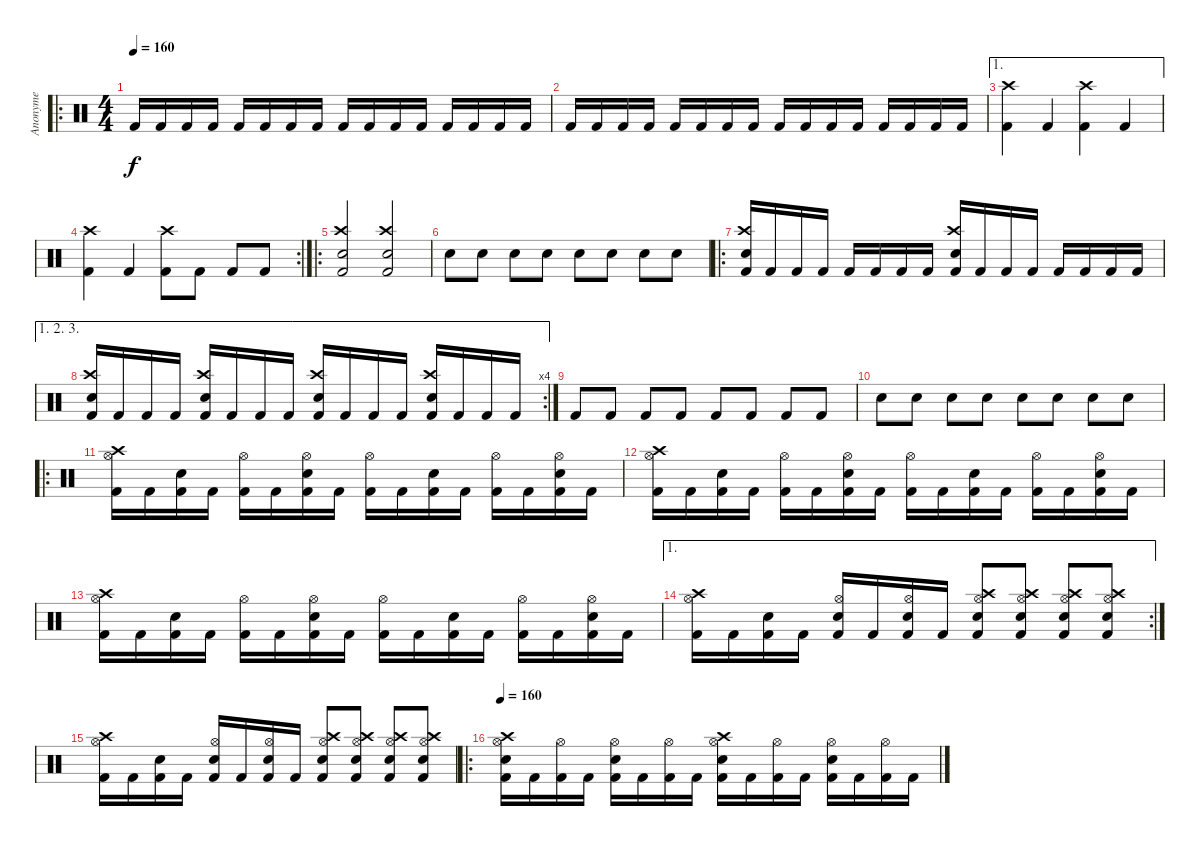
\track ("Anonyme" "Anonyme") {instrument percussion}
\staff {score}
\articulation defaults
\ro
\ts (4 4)
\tempo 160
\clef neutral
\ks c "Kick (hit) 2".16{dy f} "Kick (hit) 2".16 "Kick (hit) 2".16 "Kick (hit) 2".16 "Kick (hit) 2".16 "Kick (hit) 2".16 "Kick (hit) 2".16 "Kick (hit) 2".16 "Kick (hit) 2".16 "Kick (hit) 2".16 "Kick (hit) 2".16 "Kick (hit) 2".16 "Kick (hit) 2".16 "Kick (hit) 2".16 "Kick (hit) 2".16 "Kick (hit) 2".16
|
"Kick (hit) 2".16 "Kick (hit) 2".16 "Kick (hit) 2".16 "Kick (hit) 2".16 "Kick (hit) 2".16 "Kick (hit) 2".16 "Kick (hit) 2".16 "Kick (hit) 2".16 "Kick (hit) 2".16 "Kick (hit) 2".16 "Kick (hit) 2".16 "Kick (hit) 2".16 "Kick (hit) 2".16 "Kick (hit) 2".16 "Kick (hit) 2".16 "Kick (hit) 2".16 |
\ae 1
("Crash high (hit)" "Kick (hit) 2").4 "Kick (hit) 2".4 ("Crash high (hit)" "Kick (hit) 2").4 "Kick (hit) 2".4 |
\rc 2
("Crash high (hit)" "Kick (hit) 2").4 "Kick (hit) 2".4 ("Crash high (hit)" "Kick (hit) 2").8 "Kick (hit) 2".8 "Kick (hit) 2".8 "Kick (hit) 2".8 |
\ro
("Crash high (hit)" "Snare (hit) 2" "Kick (hit) 2").2 ("Crash high (hit)" "Snare (hit) 2" "Kick (hit) 2").2 |
"Snare (hit) 2".8 "Snare (hit) 2".8 "Snare (hit) 2".8 "Snare (hit) 2".8 "Snare (hit) 2".8 "Snare (hit) 2".8 "Snare (hit) 2".8 "Snare (hit) 2".8 |
\ro
("Crash high (hit)" "Snare (hit) 2" "Kick (hit) 2").16 "Kick (hit) 2".16 "Kick (hit) 2".16 "Kick (hit) 2".16 "Kick (hit) 2".16 "Kick (hit) 2".16 "Kick (hit) 2".16 "Kick (hit) 2".16 ("Crash high (hit)" "Snare (hit) 2" "Kick (hit) 2").16 "Kick (hit) 2".16 "Kick (hit) 2".16 "Kick (hit) 2".16 "Kick (hit) 2".16 "Kick (hit) 2".16 "Kick (hit) 2".16 "Kick (hit) 2".16 |
\ae (1 2 3)
\rc 4
("Crash high (hit)" "Snare (hit) 2" "Kick (hit) 2").16 "Kick (hit) 2".16 "Kick (hit) 2".16 "Kick (hit) 2".16 ("Crash high (hit)" "Snare (hit) 2" "Kick (hit) 2").16 "Kick (hit) 2".16 "Kick (hit) 2".16 "Kick (hit) 2".16 ("Crash high (hit)" "Snare (hit) 2" "Kick (hit) 2").16 "Kick (hit) 2".16 "Kick (hit) 2".16 "Kick (hit) 2".16 ("Crash high (hit)" "Snare (hit) 2" "Kick (hit) 2").16 "Kick (hit) 2".16 "Kick (hit) 2".16 "Kick (hit) 2".16 |
"Kick (hit) 2".8 "Kick (hit) 2".8 "Kick (hit) 2".8 "Kick (hit) 2".8 "Kick (hit) 2".8 "Kick (hit) 2".8 "Kick (hit) 2".8 "Kick (hit) 2".8 |
"Snare (hit) 2".8 "Snare (hit) 2".8 "Snare (hit) 2".8 "Snare (hit) 2".8 "Snare (hit) 2".8 "Snare (hit) 2".8 "Snare (hit) 2".8 "Snare (hit) 2".8 |
\ro
("Crash high (hit)" "Kick (hit) 2" "Hi-Hat (open)").16 "Kick (hit) 2".16 ("Electric Snare (hit)" "Kick (hit) 2").16 "Kick (hit) 2".16 ("Kick (hit) 2" "Hi-Hat (open)").16 "Kick (hit) 2".16 ("Electric Snare (hit)" "Kick (hit) 2" "Hi-Hat (open)").16 "Kick (hit) 2".16 ("Kick (hit) 2" "Hi-Hat (open)").16 "Kick (hit) 2".16 ("Electric Snare (hit)" "Kick (hit) 2").16 "Kick (hit) 2".16 ("Kick (hit) 2" "Hi-Hat (open)").16 "Kick (hit) 2".16 ("Electric Snare (hit)" "Kick (hit) 2" "Hi-Hat (open)").16 "Kick (hit) 2".16 |
("Crash high (hit)" "Kick (hit) 2" "Hi-Hat (open)").16 "Kick (hit) 2".16 ("Electric Snare (hit)" "Kick (hit) 2").16 "Kick (hit) 2".16 ("Kick (hit) 2" "Hi-Hat (open)").16 "Kick (hit) 2".16 ("Electric Snare (hit)" "Kick (hit) 2" "Hi-Hat (open)").16 "Kick (hit) 2".16 ("Kick (hit) 2" "Hi-Hat (open)").16 "Kick (hit) 2".16 ("Electric Snare (hit)" "Kick (hit) 2").16 "Kick (hit) 2".16 ("Kick (hit) 2" "Hi-Hat (open)").16 "Kick (hit) 2".16 ("Electric Snare (hit)" "Kick (hit) 2" "Hi-Hat (open)").16 "Kick (hit) 2".16 |
("Crash high (hit)" "Kick (hit) 2" "Hi-Hat (open)").16 "Kick (hit) 2".16 ("Electric Snare (hit)" "Kick (hit) 2").16 "Kick (hit) 2".16 ("Kick (hit) 2" "Hi-Hat (open)").16 "Kick (hit) 2".16 ("Electric Snare (hit)" "Kick (hit) 2" "Hi-Hat (open)").16 "Kick (hit) 2".16 ("Kick (hit) 2" "Hi-Hat (open)").16 "Kick (hit) 2".16 ("Electric Snare (hit)" "Kick (hit) 2").16 "Kick (hit) 2".16 ("Kick (hit) 2" "Hi-Hat (open)").16 "Kick (hit) 2".16 ("Electric Snare (hit)" "Kick (hit) 2" "Hi-Hat (open)").16 "Kick (hit) 2".16 |
\ae 1
\rc 2
("Crash high (hit)" "Kick (hit) 2" "Hi-Hat (open)").16 "Kick (hit) 2".16 ("Electric Snare (hit)" "Kick (hit) 2").16 "Kick (hit) 2".16 ("Electric Snare (hit)" "Kick (hit) 2" "Hi-Hat (open)").16 "Kick (hit) 2".16 ("Electric Snare (hit)" "Kick (hit) 2" "Hi-Hat (open)").16 "Kick (hit) 2".16 ("Crash high (hit)" "Electric Snare (hit)" "Kick (hit) 2" "Hi-Hat (open)").8 ("Crash high (hit)" "Electric Snare (hit)" "Kick (hit) 2" "Hi-Hat (open)").8 ("Crash high (hit)" "Electric Snare (hit)" "Kick (hit) 2" "Hi-Hat (open)").8 ("Crash high (hit)" "Electric Snare (hit)" "Kick (hit) 2" "Hi-Hat (open)").8 |
("Crash high (hit)" "Kick (hit) 2" "Hi-Hat (open)").16 "Kick (hit) 2".16 ("Electric Snare (hit)" "Kick (hit) 2").16 "Kick (hit) 2".16 ("Electric Snare (hit)" "Kick (hit) 2" "Hi-Hat (open)").16 "Kick (hit) 2".16 ("Electric Snare (hit)" "Kick (hit) 2" "Hi-Hat (open)").16 "Kick (hit) 2".16 ("Crash high (hit)" "Electric Snare (hit)" "Kick (hit) 2" "Hi-Hat (open)").8 ("Crash high (hit)" "Electric Snare (hit)" "Kick (hit) 2" "Hi-Hat (open)").8 ("Crash high (hit)" "Electric Snare (hit)" "Kick (hit) 2" "Hi-Hat (open)").8 ("Crash high (hit)" "Electric Snare (hit)" "Kick (hit) 2" "Hi-Hat (open)").8 |
\ro
\tempo 160
("Crash high (hit)" "Hi-Hat (open)" "Snare (hit) 2" "Kick (hit) 2").16 "Kick (hit) 2".16 ("Hi-Hat (open)" "Kick (hit) 2").16 "Kick (hit) 2".16 ("Hi-Hat (open)" "Snare (hit) 2" "Kick (hit) 2").16 "Kick (hit) 2".16 ("Hi-Hat (open)" "Kick (hit) 2").16 "Kick (hit) 2".16 ("Crash high (hit)" "Hi-Hat (open)" "Snare (hit) 2" "Kick (hit) 2").16 "Kick (hit) 2".16 ("Hi-Hat (open)" "Kick (hit) 2").16 "Kick (hit) 2".16 ("Hi-Hat (open)" "Snare (hit) 2" "Kick (hit) 2").16 "Kick (hit) 2".16 ("Hi-Hat (open)" "Kick (hit) 2").16 "Kick (hit) 2".16
